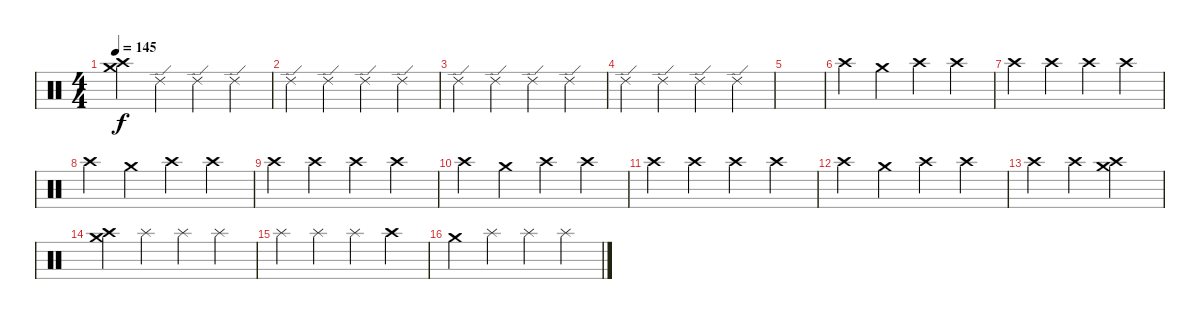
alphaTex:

\track "" {instrument percussion}
\staff {score}
\articulation defaults
\ts (4 4)
\tempo 145
\clef neutral
\ks c
("Crash medium (hit)" "Crash high (hit)").4{dy f} "Ride (edge) 2".4 "Ride (edge) 2".4 "Ride (edge) 2".4 |
"Ride (edge) 2".4 "Ride (edge) 2".4 "Ride (edge) 2".4 "Ride (edge) 2".4 |
"Ride (edge) 2".4 "Ride (edge) 2".4 "Ride (edge) 2".4 "Ride (edge) 2".4 |
"Ride (edge) 2".4 "Ride (edge) 2".4 "Ride (edge) 2".4 "Ride (edge) 2".4 |
|
"Crash high (hit)".4 "Crash medium (hit)".4 "Crash high (hit)".4 "Crash high (hit)".4 |
"Crash high (hit)".4 "Crash high (hit)".4 "Crash high (hit)".4 "Crash high (hit)".4 |
"Crash high (hit)".4 "Crash medium (hit)".4 "Crash high (hit)".4 "Crash high (hit)".4 |
"Crash high (hit)".4 "Crash high (hit)".4 "Crash high (hit)".4 "Crash high (hit)".4 |
"Crash high (hit)".4 "Crash medium (hit)".4 "Crash high (hit)".4 "Crash high (hit)".4 |
"Crash high (hit)".4 "Crash high (hit)".4 "Crash high (hit)".4 "Crash high (hit)".4 |
"Crash high (hit)".4 "Crash medium (hit)".4 "Crash high (hit)".4 "Crash high (hit)".4 |
"Crash high (hit)".4 "Crash high (hit)".4 ("Crash medium (hit)" "Crash high (hit)").2 |
("Crash medium (hit)" "Crash high (hit)").4 "Splash (hit)".4 "Splash (hit)".4 "Splash (hit)".4 |
"Splash (hit)".4 "Splash (hit)".4 "Splash (hit)".4 "Crash high (hit)".4 |
"Crash medium (hit)".4 "Splash (hit)".4 "Splash (hit)".4 "Splash (hit)".4
